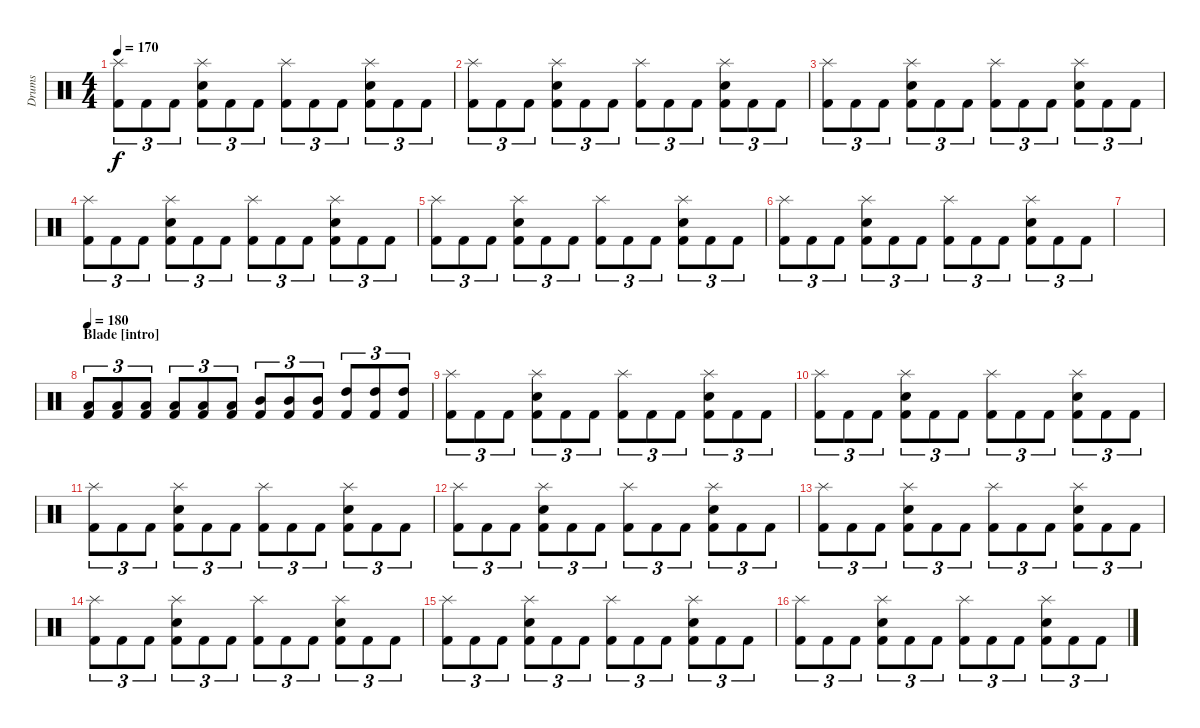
\track ("Drums" "Drums") {instrument percussion}
\staff {score}
\articulation defaults
\ts (4 4)
\tempo 170
\clef neutral
\ks c
("Splash (hit)" "Kick (hit) 2").8{tu (3 2) dy f} "Kick (hit) 2".8{tu (3 2)} "Kick (hit) 2".8{tu (3 2)} ("Splash (hit)" "Electric Snare (hit)" "Kick (hit) 2").8{tu (3 2)} "Kick (hit) 2".8{tu (3 2)} "Kick (hit) 2".8{tu (3 2)} ("Splash (hit)" "Kick (hit) 2").8{tu (3 2)} "Kick (hit) 2".8{tu (3 2)} "Kick (hit) 2".8{tu (3 2)} ("Splash (hit)" "Electric Snare (hit)" "Kick (hit) 2").8{tu (3 2)} "Kick (hit) 2".8{tu (3 2)} "Kick (hit) 2".8{tu (3 2)} |
("Splash (hit)" "Kick (hit) 2").8{tu (3 2)} "Kick (hit) 2".8{tu (3 2)} "Kick (hit) 2".8{tu (3 2)} ("Splash (hit)" "Electric Snare (hit)" "Kick (hit) 2").8{tu (3 2)} "Kick (hit) 2".8{tu (3 2)} "Kick (hit) 2".8{tu (3 2)} ("Splash (hit)" "Kick (hit) 2").8{tu (3 2)} "Kick (hit) 2".8{tu (3 2)} "Kick (hit) 2".8{tu (3 2)} ("Splash (hit)" "Electric Snare (hit)" "Kick (hit) 2").8{tu (3 2)} "Kick (hit) 2".8{tu (3 2)} "Kick (hit) 2".8{tu (3 2)} |
("Splash (hit)" "Kick (hit) 2").8{tu (3 2)} "Kick (hit) 2".8{tu (3 2)} "Kick (hit) 2".8{tu (3 2)} ("Splash (hit)" "Electric Snare (hit)" "Kick (hit) 2").8{tu (3 2)} "Kick (hit) 2".8{tu (3 2)} "Kick (hit) 2".8{tu (3 2)} ("Splash (hit)" "Kick (hit) 2").8{tu (3 2)} "Kick (hit) 2".8{tu (3 2)} "Kick (hit) 2".8{tu (3 2)} ("Splash (hit)" "Electric Snare (hit)" "Kick (hit) 2").8{tu (3 2)} "Kick (hit) 2".8{tu (3 2)} "Kick (hit) 2".8{tu (3 2)} |
("Splash (hit)" "Kick (hit) 2").8{tu (3 2)} "Kick (hit) 2".8{tu (3 2)} "Kick (hit) 2".8{tu (3 2)} ("Splash (hit)" "Electric Snare (hit)" "Kick (hit) 2").8{tu (3 2)} "Kick (hit) 2".8{tu (3 2)} "Kick (hit) 2".8{tu (3 2)} ("Splash (hit)" "Kick (hit) 2").8{tu (3 2)} "Kick (hit) 2".8{tu (3 2)} "Kick (hit) 2".8{tu (3 2)} ("Splash (hit)" "Electric Snare (hit)" "Kick (hit) 2").8{tu (3 2)} "Kick (hit) 2".8{tu (3 2)} "Kick (hit) 2".8{tu (3 2)} |
("Splash (hit)" "Kick (hit) 2").8{tu (3 2)} "Kick (hit) 2".8{tu (3 2)} "Kick (hit) 2".8{tu (3 2)} ("Splash (hit)" "Electric Snare (hit)" "Kick (hit) 2").8{tu (3 2)} "Kick (hit) 2".8{tu (3 2)} "Kick (hit) 2".8{tu (3 2)} ("Splash (hit)" "Kick (hit) 2").8{tu (3 2)} "Kick (hit) 2".8{tu (3 2)} "Kick (hit) 2".8{tu (3 2)} ("Splash (hit)" "Electric Snare (hit)" "Kick (hit) 2").8{tu (3 2)} "Kick (hit) 2".8{tu (3 2)} "Kick (hit) 2".8{tu (3 2)} |
("Splash (hit)" "Kick (hit) 2").8{tu (3 2)} "Kick (hit) 2".8{tu (3 2)} "Kick (hit) 2".8{tu (3 2)} ("Splash (hit)" "Electric Snare (hit)" "Kick (hit) 2").8{tu (3 2)} "Kick (hit) 2".8{tu (3 2)} "Kick (hit) 2".8{tu (3 2)} ("Splash (hit)" "Kick (hit) 2").8{tu (3 2)} "Kick (hit) 2".8{tu (3 2)} "Kick (hit) 2".8{tu (3 2)} ("Splash (hit)" "Electric Snare (hit)" "Kick (hit) 2").8{tu (3 2)} "Kick (hit) 2".8{tu (3 2)} "Kick (hit) 2".8{tu (3 2)} |
|
\section ("" "Blade [intro]")
\tempo 180
("Low Tom (hit)" "Kick (hit) 2").8{tu (3 2)} ("Low Tom (hit)" "Kick (hit) 2").8{tu (3 2)} ("Low Tom (hit)" "Kick (hit) 2").8{tu (3 2)} ("Low Tom (hit)" "Kick (hit) 2").8{tu (3 2)} ("Low Tom (hit)" "Kick (hit) 2").8{tu (3 2)} ("Low Tom (hit)" "Kick (hit) 2").8{tu (3 2)} ("Mid Tom (hit)" "Kick (hit) 2").8{tu (3 2)} ("Mid Tom (hit)" "Kick (hit) 2").8{tu (3 2)} ("Mid Tom (hit)" "Kick (hit) 2").8{tu (3 2)} ("High Tom (hit)" "Kick (hit) 2").8{tu (3 2)} ("High Tom (hit)" "Kick (hit) 2").8{tu (3 2)} ("High Tom (hit)" "Kick (hit) 2").8{tu (3 2)} |
("Splash (hit)" "Kick (hit) 2").8{tu (3 2)} "Kick (hit) 2".8{tu (3 2)} "Kick (hit) 2".8{tu (3 2)} ("Splash (hit)" "Electric Snare (hit)" "Kick (hit) 2").8{tu (3 2)} "Kick (hit) 2".8{tu (3 2)} "Kick (hit) 2".8{tu (3 2)} ("Splash (hit)" "Kick (hit) 2").8{tu (3 2)} "Kick (hit) 2".8{tu (3 2)} "Kick (hit) 2".8{tu (3 2)} ("Splash (hit)" "Electric Snare (hit)" "Kick (hit) 2").8{tu (3 2)} "Kick (hit) 2".8{tu (3 2)} "Kick (hit) 2".8{tu (3 2)} |
("Splash (hit)" "Kick (hit) 2").8{tu (3 2)} "Kick (hit) 2".8{tu (3 2)} "Kick (hit) 2".8{tu (3 2)} ("Splash (hit)" "Electric Snare (hit)" "Kick (hit) 2").8{tu (3 2)} "Kick (hit) 2".8{tu (3 2)} "Kick (hit) 2".8{tu (3 2)} ("Splash (hit)" "Kick (hit) 2").8{tu (3 2)} "Kick (hit) 2".8{tu (3 2)} "Kick (hit) 2".8{tu (3 2)} ("Splash (hit)" "Electric Snare (hit)" "Kick (hit) 2").8{tu (3 2)} "Kick (hit) 2".8{tu (3 2)} "Kick (hit) 2".8{tu (3 2)} |
("Splash (hit)" "Kick (hit) 2").8{tu (3 2)} "Kick (hit) 2".8{tu (3 2)} "Kick (hit) 2".8{tu (3 2)} ("Splash (hit)" "Electric Snare (hit)" "Kick (hit) 2").8{tu (3 2)} "Kick (hit) 2".8{tu (3 2)} "Kick (hit) 2".8{tu (3 2)} ("Splash (hit)" "Kick (hit) 2").8{tu (3 2)} "Kick (hit) 2".8{tu (3 2)} "Kick (hit) 2".8{tu (3 2)} ("Splash (hit)" "Electric Snare (hit)" "Kick (hit) 2").8{tu (3 2)} "Kick (hit) 2".8{tu (3 2)} "Kick (hit) 2".8{tu (3 2)} |
("Splash (hit)" "Kick (hit) 2").8{tu (3 2)} "Kick (hit) 2".8{tu (3 2)} "Kick (hit) 2".8{tu (3 2)} ("Splash (hit)" "Electric Snare (hit)" "Kick (hit) 2").8{tu (3 2)} "Kick (hit) 2".8{tu (3 2)} "Kick (hit) 2".8{tu (3 2)} ("Splash (hit)" "Kick (hit) 2").8{tu (3 2)} "Kick (hit) 2".8{tu (3 2)} "Kick (hit) 2".8{tu (3 2)} ("Splash (hit)" "Electric Snare (hit)" "Kick (hit) 2").8{tu (3 2)} "Kick (hit) 2".8{tu (3 2)} "Kick (hit) 2".8{tu (3 2)} |
("Splash (hit)" "Kick (hit) 2").8{tu (3 2)} "Kick (hit) 2".8{tu (3 2)} "Kick (hit) 2".8{tu (3 2)} ("Splash (hit)" "Electric Snare (hit)" "Kick (hit) 2").8{tu (3 2)} "Kick (hit) 2".8{tu (3 2)} "Kick (hit) 2".8{tu (3 2)} ("Splash (hit)" "Kick (hit) 2").8{tu (3 2)} "Kick (hit) 2".8{tu (3 2)} "Kick (hit) 2".8{tu (3 2)} ("Splash (hit)" "Electric Snare (hit)" "Kick (hit) 2").8{tu (3 2)} "Kick (hit) 2".8{tu (3 2)} "Kick (hit) 2".8{tu (3 2)} |
("Splash (hit)" "Kick (hit) 2").8{tu (3 2)} "Kick (hit) 2".8{tu (3 2)} "Kick (hit) 2".8{tu (3 2)} ("Splash (hit)" "Electric Snare (hit)" "Kick (hit) 2").8{tu (3 2)} "Kick (hit) 2".8{tu (3 2)} "Kick (hit) 2".8{tu (3 2)} ("Splash (hit)" "Kick (hit) 2").8{tu (3 2)} "Kick (hit) 2".8{tu (3 2)} "Kick (hit) 2".8{tu (3 2)} ("Splash (hit)" "Electric Snare (hit)" "Kick (hit) 2").8{tu (3 2)} "Kick (hit) 2".8{tu (3 2)} "Kick (hit) 2".8{tu (3 2)} |
("Splash (hit)" "Kick (hit) 2").8{tu (3 2)} "Kick (hit) 2".8{tu (3 2)} "Kick (hit) 2".8{tu (3 2)} ("Splash (hit)" "Electric Snare (hit)" "Kick (hit) 2").8{tu (3 2)} "Kick (hit) 2".8{tu (3 2)} "Kick (hit) 2".8{tu (3 2)} ("Splash (hit)" "Kick (hit) 2").8{tu (3 2)} "Kick (hit) 2".8{tu (3 2)} "Kick (hit) 2".8{tu (3 2)} ("Splash (hit)" "Electric Snare (hit)" "Kick (hit) 2").8{tu (3 2)} "Kick (hit) 2".8{tu (3 2)} "Kick (hit) 2".8{tu (3 2)} |
("Splash (hit)" "Kick (hit) 2").8{tu (3 2)} "Kick (hit) 2".8{tu (3 2)} "Kick (hit) 2".8{tu (3 2)} ("Splash (hit)" "Electric Snare (hit)" "Kick (hit) 2").8{tu (3 2)} "Kick (hit) 2".8{tu (3 2)} "Kick (hit) 2".8{tu (3 2)} ("Splash (hit)" "Kick (hit) 2").8{tu (3 2)} "Kick (hit) 2".8{tu (3 2)} "Kick (hit) 2".8{tu (3 2)} ("Splash (hit)" "Electric Snare (hit)" "Kick (hit) 2").8{tu (3 2)} "Kick (hit) 2".8{tu (3 2)} "Kick (hit) 2".8{tu (3 2)}
